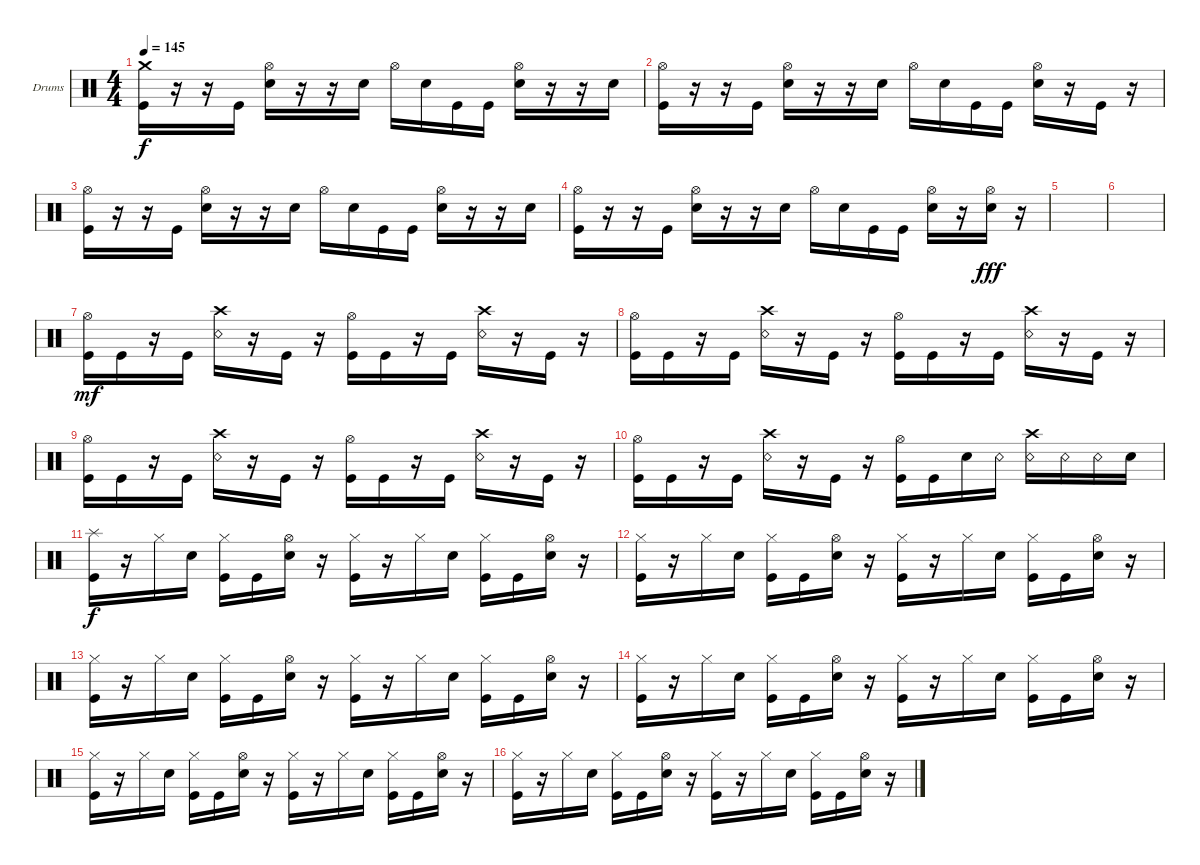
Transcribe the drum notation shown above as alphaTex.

\defaultSystemsLayout 4
\bracketExtendMode groupsimilarinstruments
\firstSystemTrackNameOrientation horizontal
\otherSystemsTrackNameOrientation horizontal
\track ("Drumkit" "Drums") {instrument percussion}
\staff {score}
\articulation defaults
\ts (4 4)
\tempo 145
\clef neutral
\ks c
("Crash medium (hit)" "Kick (hit)").16{dy f} r.16 r.16 "Kick (hit)".16 ("Hi-Hat (open)" "Snare (hit) 2").16 r.16 r.16 "Snare (hit) 2".16 "Hi-Hat (open)".16 "Snare (hit) 2".16 "Kick (hit)".16 "Kick (hit)".16 ("Hi-Hat (open)" "Snare (hit) 2").16 r.16 r.16 "Snare (hit) 2".16 |
("Hi-Hat (open)" "Kick (hit)").16 r.16 r.16 "Kick (hit)".16 ("Hi-Hat (open)" "Snare (hit) 2").16 r.16 r.16 "Snare (hit) 2".16 "Hi-Hat (open)".16 "Snare (hit) 2".16 "Kick (hit)".16 "Kick (hit)".16 ("Hi-Hat (open)" "Snare (hit) 2").16 r.16 "Kick (hit)".16 r.16 |
("Hi-Hat (open)" "Kick (hit)").16 r.16 r.16 "Kick (hit)".16 ("Hi-Hat (open)" "Snare (hit) 2").16 r.16 r.16 "Snare (hit) 2".16 "Hi-Hat (open)".16 "Snare (hit) 2".16 "Kick (hit)".16 "Kick (hit)".16 ("Hi-Hat (open)" "Snare (hit) 2").16 r.16 r.16 "Snare (hit) 2".16 |
("Hi-Hat (open)" "Kick (hit)").16 r.16 r.16 "Kick (hit)".16 ("Hi-Hat (open)" "Snare (hit) 2").16 r.16 r.16 "Snare (hit) 2".16 "Hi-Hat (open)".16 "Snare (hit) 2".16 "Kick (hit)".16 "Kick (hit)".16 ("Hi-Hat (open)" "Snare (hit) 2").16 r.16 ("Hi-Hat (open)" "Snare (hit) 2").16{dy fff} r.16 |
|
|
("Kick (hit)" "Hi-Hat (open)").16{dy mf} "Kick (hit)".16 r.16 "Kick (hit)".16 ("Snare (rim shot)" "Crash high (hit)").16 r.16 "Kick (hit)".16 r.16 ("Kick (hit)" "Hi-Hat (open)").16 "Kick (hit)".16 r.16 "Kick (hit)".16 ("Snare (rim shot)" "Crash high (hit)").16 r.16 "Kick (hit)".16 r.16 |
("Kick (hit)" "Hi-Hat (open)").16 "Kick (hit)".16 r.16 "Kick (hit)".16 ("Snare (rim shot)" "Crash high (hit)").16 r.16 "Kick (hit)".16 r.16 ("Kick (hit)" "Hi-Hat (open)").16 "Kick (hit)".16 r.16 "Kick (hit)".16 ("Snare (rim shot)" "Crash high (hit)").16 r.16 "Kick (hit)".16 r.16 |
("Kick (hit)" "Hi-Hat (open)").16 "Kick (hit)".16 r.16 "Kick (hit)".16 ("Snare (rim shot)" "Crash high (hit)").16 r.16 "Kick (hit)".16 r.16 ("Kick (hit)" "Hi-Hat (open)").16 "Kick (hit)".16 r.16 "Kick (hit)".16 ("Snare (rim shot)" "Crash high (hit)").16 r.16 "Kick (hit)".16 r.16 |
("Kick (hit)" "Hi-Hat (open)").16 "Kick (hit)".16 r.16 "Kick (hit)".16 ("Snare (rim shot)" "Crash high (hit)").16 r.16 "Kick (hit)".16 r.16 ("Kick (hit)" "Hi-Hat (open)").16 "Kick (hit)".16 "Snare (hit) 2".16 "Snare (rim shot)".16 ("Snare (rim shot)" "Crash high (hit)").16 "Snare (rim shot)".16 "Snare (rim shot)".16 "Snare (hit) 2".16 |
("Splash (hit)" "Kick (hit)").16{dy f} r.16 "Hi-Hat (closed)".16 "Snare (hit) 2".16 ("Hi-Hat (closed)" "Kick (hit)").16 "Kick (hit)".16 ("Hi-Hat (open)" "Snare (hit) 2").16 r.16 ("Hi-Hat (closed)" "Kick (hit)").16 r.16 "Hi-Hat (closed)".16 "Snare (hit) 2".16 ("Hi-Hat (closed)" "Kick (hit)").16 "Kick (hit)".16 ("Hi-Hat (open)" "Snare (hit) 2").16 r.16 |
("Hi-Hat (closed)" "Kick (hit)").16 r.16 "Hi-Hat (closed)".16 "Snare (hit) 2".16 ("Hi-Hat (closed)" "Kick (hit)").16 "Kick (hit)".16 ("Hi-Hat (open)" "Snare (hit) 2").16 r.16 ("Hi-Hat (closed)" "Kick (hit)").16 r.16 "Hi-Hat (closed)".16 "Snare (hit) 2".16 ("Hi-Hat (closed)" "Kick (hit)").16 "Kick (hit)".16 ("Hi-Hat (open)" "Snare (hit) 2").16 r.16 |
("Kick (hit)" "Hi-Hat (closed)").16 r.16 "Hi-Hat (closed)".16 "Snare (hit) 2".16 ("Hi-Hat (closed)" "Kick (hit)").16 "Kick (hit)".16 ("Hi-Hat (open)" "Snare (hit) 2").16 r.16 ("Hi-Hat (closed)" "Kick (hit)").16 r.16 "Hi-Hat (closed)".16 "Snare (hit) 2".16 ("Hi-Hat (closed)" "Kick (hit)").16 "Kick (hit)".16 ("Hi-Hat (open)" "Snare (hit) 2").16 r.16 |
("Hi-Hat (closed)" "Kick (hit)").16 r.16 "Hi-Hat (closed)".16 "Snare (hit) 2".16 ("Hi-Hat (closed)" "Kick (hit)").16 "Kick (hit)".16 ("Hi-Hat (open)" "Snare (hit) 2").16 r.16 ("Hi-Hat (closed)" "Kick (hit)").16 r.16 "Hi-Hat (closed)".16 "Snare (hit) 2".16 ("Hi-Hat (closed)" "Kick (hit)").16 "Kick (hit)".16 ("Hi-Hat (open)" "Snare (hit) 2").16 r.16 |
("Kick (hit)" "Hi-Hat (closed)").16 r.16 "Hi-Hat (closed)".16 "Snare (hit) 2".16 ("Hi-Hat (closed)" "Kick (hit)").16 "Kick (hit)".16 ("Hi-Hat (open)" "Snare (hit) 2").16 r.16 ("Hi-Hat (closed)" "Kick (hit)").16 r.16 "Hi-Hat (closed)".16 "Snare (hit) 2".16 ("Hi-Hat (closed)" "Kick (hit)").16 "Kick (hit)".16 ("Hi-Hat (open)" "Snare (hit) 2").16 r.16 |
("Hi-Hat (closed)" "Kick (hit)").16 r.16 "Hi-Hat (closed)".16 "Snare (hit) 2".16 ("Hi-Hat (closed)" "Kick (hit)").16 "Kick (hit)".16 ("Hi-Hat (open)" "Snare (hit) 2").16 r.16 ("Hi-Hat (closed)" "Kick (hit)").16 r.16 "Hi-Hat (closed)".16 "Snare (hit) 2".16 ("Hi-Hat (closed)" "Kick (hit)").16 "Kick (hit)".16 ("Hi-Hat (open)" "Snare (hit) 2").16 r.16
